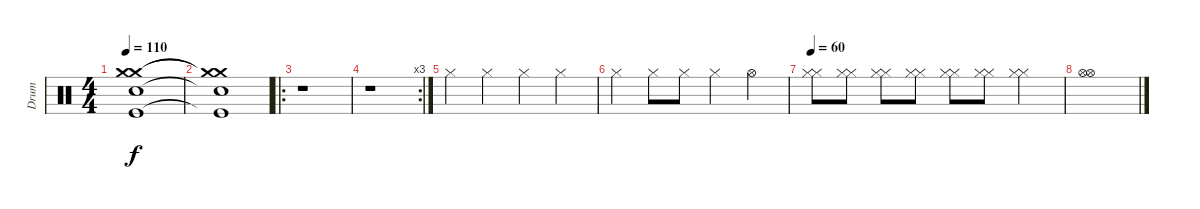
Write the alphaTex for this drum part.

\track ("Drum" "Drum") {instrument percussion}
\staff {score}
\articulation defaults
\ts (4 4)
\tempo 110
\clef neutral
\ks c
("Crash medium (hit)"{t} "Crash medium (hit)"{t} "Snare (hit) 2"{t} "Kick (hit)"{t}).1{dy f} |
("Crash medium (hit)"{t} "Crash medium (hit)"{t} "Snare (hit) 2"{t} "Kick (hit)"{t}).1 |
\ro
r.1 |
\rc 3
r.1 |
"Hi-Hat (closed)".4 "Hi-Hat (closed)".4 "Hi-Hat (closed)".4 "Hi-Hat (closed)".4 |
"Hi-Hat (closed)".4 "Hi-Hat (closed)".8 "Hi-Hat (closed)".8 "Hi-Hat (closed)".4 "Hi-Hat (open)".4 |
\tempo 60
("Hi-Hat (closed)" "Hi-Hat (closed)").8 ("Hi-Hat (closed)" "Hi-Hat (closed)").8 ("Hi-Hat (closed)" "Hi-Hat (closed)").8 ("Hi-Hat (closed)" "Hi-Hat (closed)").8 ("Hi-Hat (closed)" "Hi-Hat (closed)").8 ("Hi-Hat (closed)" "Hi-Hat (closed)").8 ("Hi-Hat (closed)" "Hi-Hat (closed)").4 |
("Hi-Hat (open)" "Hi-Hat (open)").1
